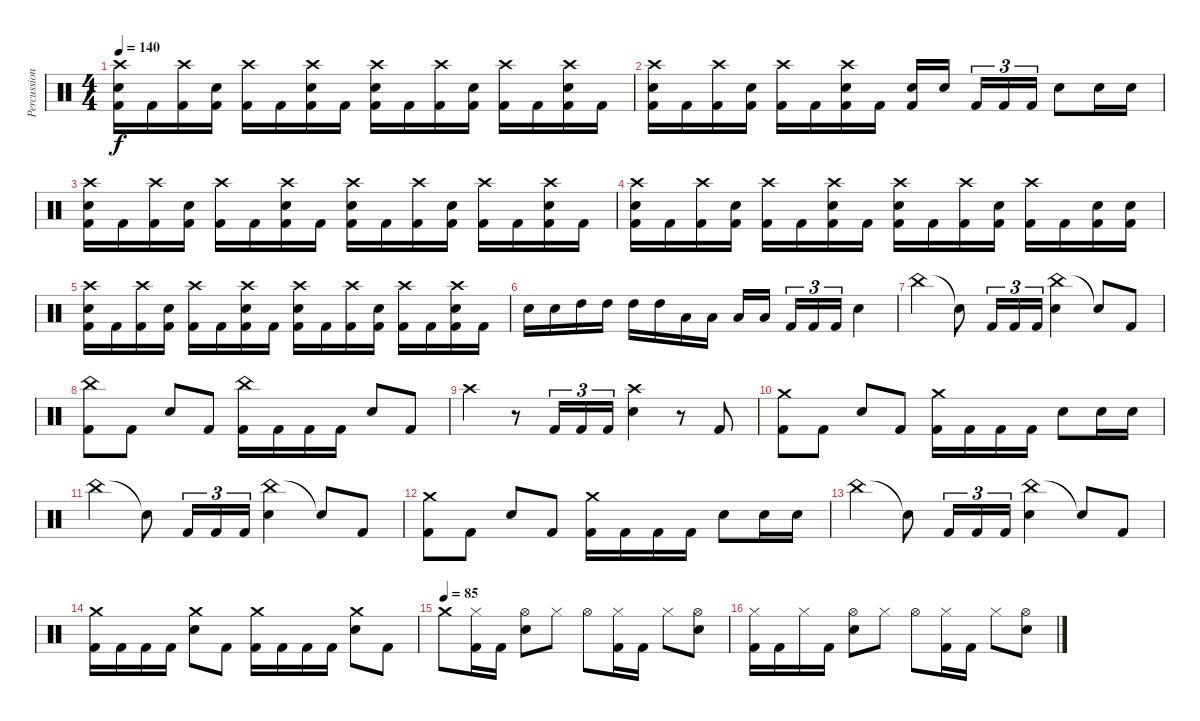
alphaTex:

\track ("Percussion" "Percussion") {instrument percussion}
\staff
\articulation defaults
\ts (4 4)
\tempo 140
\clef neutral
\ks c
("Crash high (hit)" "Electric Snare (hit)" "Kick (hit) 2").16{dy f} "Kick (hit) 2".16 ("Crash high (hit)" "Kick (hit) 2").16 ("Electric Snare (hit)" "Kick (hit) 2").16 ("Crash high (hit)" "Kick (hit) 2").16 "Kick (hit) 2".16 ("Crash high (hit)" "Electric Snare (hit)" "Kick (hit) 2").16 "Kick (hit) 2".16 ("Crash high (hit)" "Electric Snare (hit)" "Kick (hit) 2").16 "Kick (hit) 2".16 ("Crash high (hit)" "Kick (hit) 2").16 ("Electric Snare (hit)" "Kick (hit) 2").16 ("Crash high (hit)" "Kick (hit) 2").16 "Kick (hit) 2".16 ("Crash high (hit)" "Electric Snare (hit)" "Kick (hit) 2").16 "Kick (hit) 2".16 |
("Crash high (hit)" "Electric Snare (hit)" "Kick (hit) 2").16 "Kick (hit) 2".16 ("Crash high (hit)" "Kick (hit) 2").16 ("Electric Snare (hit)" "Kick (hit) 2").16 ("Crash high (hit)" "Kick (hit) 2").16 "Kick (hit) 2".16 ("Crash high (hit)" "Electric Snare (hit)" "Kick (hit) 2").16 "Kick (hit) 2".16 ("Electric Snare (hit)" "Kick (hit) 2").16 "Electric Snare (hit)".16{beam splitsecondary} "Kick (hit) 2".16{tu (3 2)} "Kick (hit) 2".16{tu (3 2)} "Kick (hit) 2".16{tu (3 2)} "Electric Snare (hit)".8 "Electric Snare (hit)".16 "Electric Snare (hit)".16 |
("Crash high (hit)" "Electric Snare (hit)" "Kick (hit) 2").16 "Kick (hit) 2".16 ("Crash high (hit)" "Kick (hit) 2").16 ("Electric Snare (hit)" "Kick (hit) 2").16 ("Crash high (hit)" "Kick (hit) 2").16 "Kick (hit) 2".16 ("Crash high (hit)" "Electric Snare (hit)" "Kick (hit) 2").16 "Kick (hit) 2".16 ("Crash high (hit)" "Electric Snare (hit)" "Kick (hit) 2").16 "Kick (hit) 2".16 ("Crash high (hit)" "Kick (hit) 2").16 ("Electric Snare (hit)" "Kick (hit) 2").16 ("Crash high (hit)" "Kick (hit) 2").16 "Kick (hit) 2".16 ("Crash high (hit)" "Electric Snare (hit)" "Kick (hit) 2").16 "Kick (hit) 2".16 |
("Crash high (hit)" "Electric Snare (hit)" "Kick (hit) 2").16 "Kick (hit) 2".16 ("Crash high (hit)" "Kick (hit) 2").16 ("Electric Snare (hit)" "Kick (hit) 2").16 ("Crash high (hit)" "Kick (hit) 2").16 "Kick (hit) 2".16 ("Crash high (hit)" "Electric Snare (hit)" "Kick (hit) 2").16 "Kick (hit) 2".16 ("Crash high (hit)" "Electric Snare (hit)" "Kick (hit) 2").16 "Kick (hit) 2".16 ("Crash high (hit)" "Kick (hit) 2").16 ("Electric Snare (hit)" "Kick (hit) 2").16 ("Crash high (hit)" "Kick (hit) 2").16 "Kick (hit) 2".16 ("Electric Snare (hit)" "Kick (hit) 2").16 ("Electric Snare (hit)" "Kick (hit) 2").16 |
("Crash high (hit)" "Electric Snare (hit)" "Kick (hit) 2").16 "Kick (hit) 2".16 ("Crash high (hit)" "Kick (hit) 2").16 ("Electric Snare (hit)" "Kick (hit) 2").16 ("Crash high (hit)" "Kick (hit) 2").16 "Kick (hit) 2".16 ("Crash high (hit)" "Electric Snare (hit)" "Kick (hit) 2").16 "Kick (hit) 2".16 ("Crash high (hit)" "Electric Snare (hit)" "Kick (hit) 2").16 "Kick (hit) 2".16 ("Crash high (hit)" "Kick (hit) 2").16 ("Electric Snare (hit)" "Kick (hit) 2").16 ("Crash high (hit)" "Kick (hit) 2").16 "Kick (hit) 2".16 ("Crash high (hit)" "Electric Snare (hit)" "Kick (hit) 2").16 "Kick (hit) 2".16 |
"Electric Snare (hit)".16 "Electric Snare (hit)".16 "High Tom (hit)".16 "High Tom (hit)".16 "High Tom (hit)".16 "High Tom (hit)".16 "Low Tom (hit)".16 "Low Tom (hit)".16 "Low Tom (hit)".16 "Low Tom (hit)".16{beam splitsecondary} "Kick (hit) 2".16{tu (3 2)} "Kick (hit) 2".16{tu (3 2)} "Kick (hit) 2".16{tu (3 2)} "Electric Snare (hit)".4 |
"China (hit)".4 "Snare (hit)"{t}.8 "Kick (hit) 2".16{tu (3 2)} "Kick (hit) 2".16{tu (3 2)} "Kick (hit) 2".16{tu (3 2)} ("China (hit)" "Electric Snare (hit)").4 "Snare (hit)"{t}.8 "Kick (hit) 2".8 |
("China (hit)" "Kick (hit) 2").8 "Kick (hit) 2".8 "Electric Snare (hit)".8 "Kick (hit) 2".8 ("China (hit)" "Kick (hit) 2").16 "Kick (hit) 2".16 "Kick (hit) 2".16 "Kick (hit) 2".16 "Electric Snare (hit)".8 "Kick (hit) 2".8 |
"Crash high (hit)".4 r.8 "Kick (hit) 2".16{tu (3 2)} "Kick (hit) 2".16{tu (3 2)} "Kick (hit) 2".16{tu (3 2)} ("Crash high (hit)" "Electric Snare (hit)").4 r.8 "Kick (hit) 2".8 |
("Crash medium (hit)" "Kick (hit) 2").8 "Kick (hit) 2".8 "Electric Snare (hit)".8 "Kick (hit) 2".8 ("Crash medium (hit)" "Kick (hit) 2").16 "Kick (hit) 2".16 "Kick (hit) 2".16 "Kick (hit) 2".16 "Electric Snare (hit)".8 "Electric Snare (hit)".16 "Electric Snare (hit)".16 |
"China (hit)".4 "Snare (hit)"{t}.8 "Kick (hit) 2".16{tu (3 2)} "Kick (hit) 2".16{tu (3 2)} "Kick (hit) 2".16{tu (3 2)} ("China (hit)" "Electric Snare (hit)").4 "Snare (hit)"{t}.8 "Kick (hit) 2".8 |
("Crash medium (hit)" "Kick (hit) 2").8 "Kick (hit) 2".8 "Electric Snare (hit)".8 "Kick (hit) 2".8 ("Crash medium (hit)" "Kick (hit) 2").16 "Kick (hit) 2".16 "Kick (hit) 2".16 "Kick (hit) 2".16 "Electric Snare (hit)".8 "Electric Snare (hit)".16 "Electric Snare (hit)".16 |
"China (hit)".4 "Snare (hit)"{t}.8 "Kick (hit) 2".16{tu (3 2)} "Kick (hit) 2".16{tu (3 2)} "Kick (hit) 2".16{tu (3 2)} ("China (hit)" "Electric Snare (hit)").4 "Snare (hit)"{t}.8 "Kick (hit) 2".8 |
("Crash medium (hit)" "Kick (hit) 2").16 "Kick (hit) 2".16 "Kick (hit) 2".16 "Kick (hit) 2".16 ("Crash medium (hit)" "Electric Snare (hit)").8 "Kick (hit) 2".8 ("Crash medium (hit)" "Kick (hit) 2").16 "Kick (hit) 2".16 "Kick (hit) 2".16 "Kick (hit) 2".16 ("Crash medium (hit)" "Electric Snare (hit)").8 "Kick (hit) 2".8 |
\tempo (85)
"Crash medium (hit)".8 ("Hi-Hat (closed)" "Kick (hit) 2").16 "Kick (hit) 2".16 ("Hi-Hat (open)" "Electric Snare (hit)").8 "Hi-Hat (closed)".8 "Hi-Hat (open)".8 ("Hi-Hat (closed)" "Kick (hit) 2").16 "Kick (hit) 2".16 "Hi-Hat (closed)".8 ("Hi-Hat (open)" "Electric Snare (hit)").8 |
("Hi-Hat (closed)" "Kick (hit) 2").16 "Kick (hit) 2".16 "Hi-Hat (closed)".16 "Kick (hit) 2".16 ("Hi-Hat (open)" "Electric Snare (hit)").8 "Hi-Hat (closed)".8 "Hi-Hat (open)".8 ("Hi-Hat (closed)" "Kick (hit) 2").16 "Kick (hit) 2".16 "Hi-Hat (closed)".8 ("Hi-Hat (open)" "Electric Snare (hit)").8
